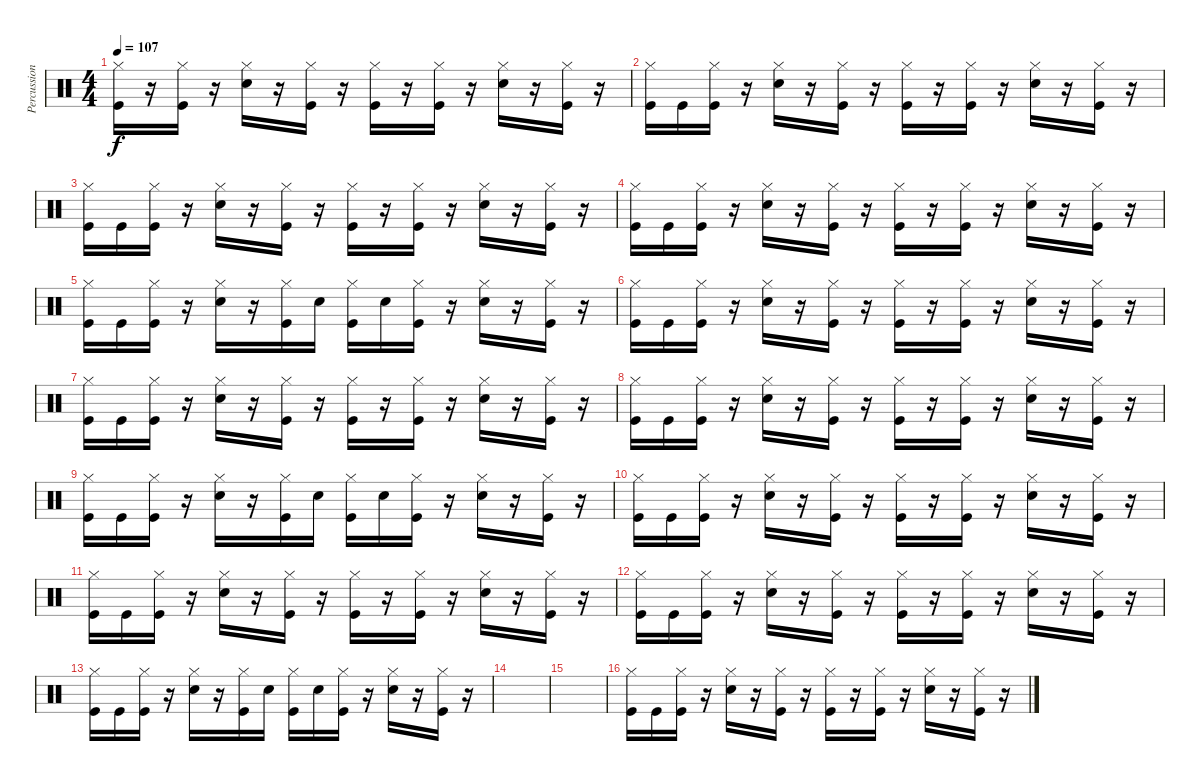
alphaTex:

\track ("Percussions" "Percussion") {instrument percussion}
\staff {score}
\articulation defaults
\ts (4 4)
\tempo 107
\clef neutral
\ks c
("Hi-Hat (closed)" "Kick (hit)").16{dy f} r.16 ("Hi-Hat (closed)" "Kick (hit)").16 r.16 ("Hi-Hat (closed)" "Electric Snare (hit)").16 r.16 ("Hi-Hat (closed)" "Kick (hit)").16 r.16 ("Hi-Hat (closed)" "Kick (hit)").16 r.16 ("Hi-Hat (closed)" "Kick (hit)").16 r.16 ("Hi-Hat (closed)" "Electric Snare (hit)").16 r.16 ("Hi-Hat (closed)" "Kick (hit)").16 r.16 |
("Hi-Hat (closed)" "Kick (hit)").16 "Kick (hit)".16 ("Hi-Hat (closed)" "Kick (hit)").16 r.16 ("Hi-Hat (closed)" "Electric Snare (hit)").16 r.16 ("Hi-Hat (closed)" "Kick (hit)").16 r.16 ("Hi-Hat (closed)" "Kick (hit)").16 r.16 ("Hi-Hat (closed)" "Kick (hit)").16 r.16 ("Hi-Hat (closed)" "Electric Snare (hit)").16 r.16 ("Hi-Hat (closed)" "Kick (hit)").16 r.16 |
("Hi-Hat (closed)" "Kick (hit)").16 "Kick (hit)".16 ("Hi-Hat (closed)" "Kick (hit)").16 r.16 ("Hi-Hat (closed)" "Electric Snare (hit)").16 r.16 ("Hi-Hat (closed)" "Kick (hit)").16 r.16 ("Hi-Hat (closed)" "Kick (hit)").16 r.16 ("Hi-Hat (closed)" "Kick (hit)").16 r.16 ("Hi-Hat (closed)" "Electric Snare (hit)").16 r.16 ("Hi-Hat (closed)" "Kick (hit)").16 r.16 |
("Hi-Hat (closed)" "Kick (hit)").16 "Kick (hit)".16 ("Hi-Hat (closed)" "Kick (hit)").16 r.16 ("Hi-Hat (closed)" "Electric Snare (hit)").16 r.16 ("Hi-Hat (closed)" "Kick (hit)").16 r.16 ("Hi-Hat (closed)" "Kick (hit)").16 r.16 ("Hi-Hat (closed)" "Kick (hit)").16 r.16 ("Hi-Hat (closed)" "Electric Snare (hit)").16 r.16 ("Hi-Hat (closed)" "Kick (hit)").16 r.16 |
("Hi-Hat (closed)" "Kick (hit)").16 "Kick (hit)".16 ("Hi-Hat (closed)" "Kick (hit)").16 r.16 ("Hi-Hat (closed)" "Electric Snare (hit)").16 r.16 ("Hi-Hat (closed)" "Kick (hit)").16 "Electric Snare (hit)".16 ("Hi-Hat (closed)" "Kick (hit)").16 "Electric Snare (hit)".16 ("Hi-Hat (closed)" "Kick (hit)").16 r.16 ("Hi-Hat (closed)" "Electric Snare (hit)").16 r.16 ("Hi-Hat (closed)" "Kick (hit)").16 r.16 |
("Hi-Hat (closed)" "Kick (hit)").16 "Kick (hit)".16 ("Hi-Hat (closed)" "Kick (hit)").16 r.16 ("Hi-Hat (closed)" "Electric Snare (hit)").16 r.16 ("Hi-Hat (closed)" "Kick (hit)").16 r.16 ("Hi-Hat (closed)" "Kick (hit)").16 r.16 ("Hi-Hat (closed)" "Kick (hit)").16 r.16 ("Hi-Hat (closed)" "Electric Snare (hit)").16 r.16 ("Hi-Hat (closed)" "Kick (hit)").16 r.16 |
("Hi-Hat (closed)" "Kick (hit)").16 "Kick (hit)".16 ("Hi-Hat (closed)" "Kick (hit)").16 r.16 ("Hi-Hat (closed)" "Electric Snare (hit)").16 r.16 ("Hi-Hat (closed)" "Kick (hit)").16 r.16 ("Hi-Hat (closed)" "Kick (hit)").16 r.16 ("Hi-Hat (closed)" "Kick (hit)").16 r.16 ("Hi-Hat (closed)" "Electric Snare (hit)").16 r.16 ("Hi-Hat (closed)" "Kick (hit)").16 r.16 |
("Hi-Hat (closed)" "Kick (hit)").16 "Kick (hit)".16 ("Hi-Hat (closed)" "Kick (hit)").16 r.16 ("Hi-Hat (closed)" "Electric Snare (hit)").16 r.16 ("Hi-Hat (closed)" "Kick (hit)").16 r.16 ("Hi-Hat (closed)" "Kick (hit)").16 r.16 ("Hi-Hat (closed)" "Kick (hit)").16 r.16 ("Hi-Hat (closed)" "Electric Snare (hit)").16 r.16 ("Hi-Hat (closed)" "Kick (hit)").16 r.16 |
("Hi-Hat (closed)" "Kick (hit)").16 "Kick (hit)".16 ("Hi-Hat (closed)" "Kick (hit)").16 r.16 ("Hi-Hat (closed)" "Electric Snare (hit)").16 r.16 ("Hi-Hat (closed)" "Kick (hit)").16 "Electric Snare (hit)".16 ("Hi-Hat (closed)" "Kick (hit)").16 "Electric Snare (hit)".16 ("Hi-Hat (closed)" "Kick (hit)").16 r.16 ("Hi-Hat (closed)" "Electric Snare (hit)").16 r.16 ("Hi-Hat (closed)" "Kick (hit)").16 r.16 |
("Hi-Hat (closed)" "Kick (hit)").16 "Kick (hit)".16 ("Hi-Hat (closed)" "Kick (hit)").16 r.16 ("Hi-Hat (closed)" "Electric Snare (hit)").16 r.16 ("Hi-Hat (closed)" "Kick (hit)").16 r.16 ("Hi-Hat (closed)" "Kick (hit)").16 r.16 ("Hi-Hat (closed)" "Kick (hit)").16 r.16 ("Hi-Hat (closed)" "Electric Snare (hit)").16 r.16 ("Hi-Hat (closed)" "Kick (hit)").16 r.16 |
("Hi-Hat (closed)" "Kick (hit)").16 "Kick (hit)".16 ("Hi-Hat (closed)" "Kick (hit)").16 r.16 ("Hi-Hat (closed)" "Electric Snare (hit)").16 r.16 ("Hi-Hat (closed)" "Kick (hit)").16 r.16 ("Hi-Hat (closed)" "Kick (hit)").16 r.16 ("Hi-Hat (closed)" "Kick (hit)").16 r.16 ("Hi-Hat (closed)" "Electric Snare (hit)").16 r.16 ("Hi-Hat (closed)" "Kick (hit)").16 r.16 |
("Hi-Hat (closed)" "Kick (hit)").16 "Kick (hit)".16 ("Hi-Hat (closed)" "Kick (hit)").16 r.16 ("Hi-Hat (closed)" "Electric Snare (hit)").16 r.16 ("Hi-Hat (closed)" "Kick (hit)").16 r.16 ("Hi-Hat (closed)" "Kick (hit)").16 r.16 ("Hi-Hat (closed)" "Kick (hit)").16 r.16 ("Hi-Hat (closed)" "Electric Snare (hit)").16 r.16 ("Hi-Hat (closed)" "Kick (hit)").16 r.16 |
("Hi-Hat (closed)" "Kick (hit)").16 "Kick (hit)".16 ("Hi-Hat (closed)" "Kick (hit)").16 r.16 ("Hi-Hat (closed)" "Electric Snare (hit)").16 r.16 ("Hi-Hat (closed)" "Kick (hit)").16 "Electric Snare (hit)".16 ("Hi-Hat (closed)" "Kick (hit)").16 "Electric Snare (hit)".16 ("Hi-Hat (closed)" "Kick (hit)").16 r.16 ("Hi-Hat (closed)" "Electric Snare (hit)").16 r.16 ("Hi-Hat (closed)" "Kick (hit)").16 r.16 |
|
|
("Hi-Hat (closed)" "Kick (hit)").16 "Kick (hit)".16 ("Hi-Hat (closed)" "Kick (hit)").16 r.16 ("Hi-Hat (closed)" "Electric Snare (hit)").16 r.16 ("Hi-Hat (closed)" "Kick (hit)").16 r.16 ("Hi-Hat (closed)" "Kick (hit)").16 r.16 ("Hi-Hat (closed)" "Kick (hit)").16 r.16 ("Hi-Hat (closed)" "Electric Snare (hit)").16 r.16 ("Hi-Hat (closed)" "Kick (hit)").16 r.16
